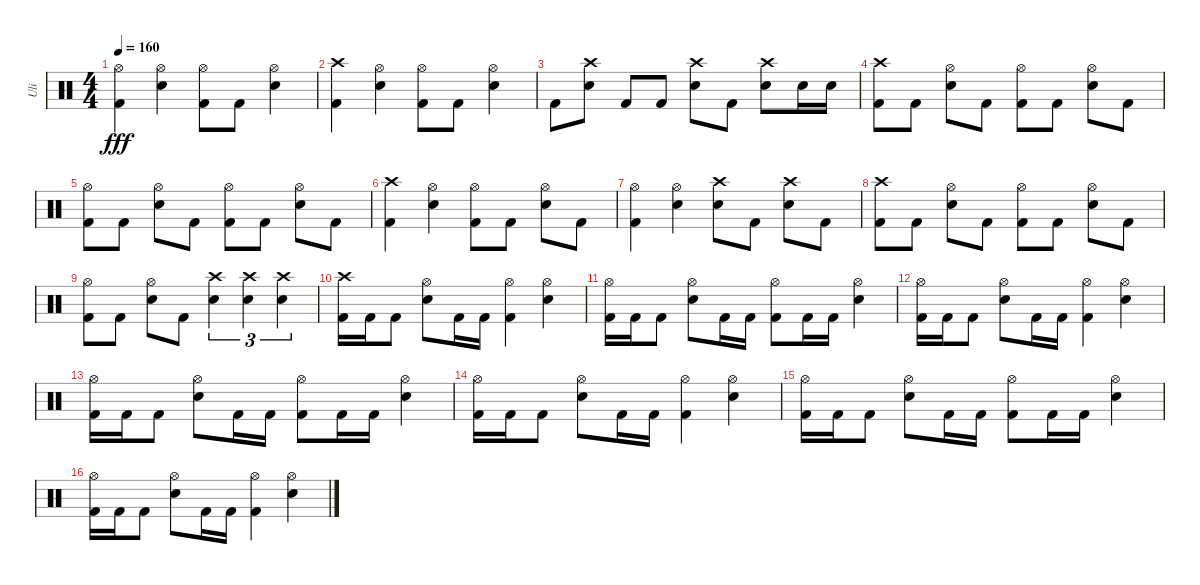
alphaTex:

\track ("Uli" "Uli") {instrument percussion}
\staff {score}
\articulation defaults
\ts (4 4)
\tempo 160
\clef neutral
\ks c
("Kick (hit) 2" "Hi-Hat (open)").4{dy fff} ("Electric Snare (hit)" "Hi-Hat (open)").4 ("Hi-Hat (open)" "Kick (hit) 2").8 "Kick (hit) 2".8 ("Electric Snare (hit)" "Hi-Hat (open)").4 |
("Crash high (hit)" "Kick (hit) 2").4 ("Electric Snare (hit)" "Hi-Hat (open)").4 ("Hi-Hat (open)" "Kick (hit) 2").8 "Kick (hit) 2".8 ("Electric Snare (hit)" "Hi-Hat (open)").4 |
"Kick (hit) 2".8 ("Crash high (hit)" "Electric Snare (hit)").8 "Kick (hit) 2".8 "Kick (hit) 2".8 ("Crash high (hit)" "Electric Snare (hit)").8 "Kick (hit) 2".8 ("Crash high (hit)" "Electric Snare (hit)").8 "Electric Snare (hit)".16 "Electric Snare (hit)".16 |
("Crash high (hit)" "Kick (hit) 2").8 "Kick (hit) 2".8 ("Electric Snare (hit)" "Hi-Hat (open)").8 "Kick (hit) 2".8 ("Hi-Hat (open)" "Kick (hit) 2").8 "Kick (hit) 2".8 ("Electric Snare (hit)" "Hi-Hat (open)").8 "Kick (hit) 2".8 |
("Kick (hit) 2" "Hi-Hat (open)").8 "Kick (hit) 2".8 ("Electric Snare (hit)" "Hi-Hat (open)").8 "Kick (hit) 2".8 ("Hi-Hat (open)" "Kick (hit) 2").8 "Kick (hit) 2".8 ("Electric Snare (hit)" "Hi-Hat (open)").8 "Kick (hit) 2".8 |
("Crash high (hit)" "Kick (hit) 2").4 ("Electric Snare (hit)" "Hi-Hat (open)").4 ("Hi-Hat (open)" "Kick (hit) 2").8 "Kick (hit) 2".8 ("Electric Snare (hit)" "Hi-Hat (open)").8 "Kick (hit) 2".8 |
("Hi-Hat (open)" "Kick (hit) 2").4 ("Electric Snare (hit)" "Hi-Hat (open)").4 ("Crash high (hit)" "Electric Snare (hit)").8 "Kick (hit) 2".8 ("Electric Snare (hit)" "Crash high (hit)").8 "Kick (hit) 2".8 |
("Crash high (hit)" "Kick (hit) 2").8 "Kick (hit) 2".8 ("Electric Snare (hit)" "Hi-Hat (open)").8 "Kick (hit) 2".8 ("Hi-Hat (open)" "Kick (hit) 2").8 "Kick (hit) 2".8 ("Electric Snare (hit)" "Hi-Hat (open)").8 "Kick (hit) 2".8 |
("Kick (hit) 2" "Hi-Hat (open)").8 "Kick (hit) 2".8 ("Electric Snare (hit)" "Hi-Hat (open)").8 "Kick (hit) 2".8 ("Crash high (hit)" "Electric Snare (hit)").4{tu (3 2)} ("Crash high (hit)" "Electric Snare (hit)").4{tu (3 2)} ("Crash high (hit)" "Electric Snare (hit)").4{tu (3 2)} |
("Crash high (hit)" "Kick (hit) 2").16 "Kick (hit) 2".16 "Kick (hit) 2".8 ("Electric Snare (hit)" "Hi-Hat (open)").8 "Kick (hit) 2".16 "Kick (hit) 2".16 ("Hi-Hat (open)" "Kick (hit) 2").4 ("Electric Snare (hit)" "Hi-Hat (open)").4 |
("Kick (hit) 2" "Hi-Hat (open)").16 "Kick (hit) 2".16 "Kick (hit) 2".8 ("Electric Snare (hit)" "Hi-Hat (open)").8 "Kick (hit) 2".16 "Kick (hit) 2".16 ("Hi-Hat (open)" "Kick (hit) 2").8 "Kick (hit) 2".16 "Kick (hit) 2".16 ("Electric Snare (hit)" "Hi-Hat (open)").4 |
("Kick (hit) 2" "Hi-Hat (open)").16 "Kick (hit) 2".16 "Kick (hit) 2".8 ("Electric Snare (hit)" "Hi-Hat (open)").8 "Kick (hit) 2".16 "Kick (hit) 2".16 ("Hi-Hat (open)" "Kick (hit) 2").4 ("Electric Snare (hit)" "Hi-Hat (open)").4 |
("Kick (hit) 2" "Hi-Hat (open)").16 "Kick (hit) 2".16 "Kick (hit) 2".8 ("Electric Snare (hit)" "Hi-Hat (open)").8 "Kick (hit) 2".16 "Kick (hit) 2".16 ("Hi-Hat (open)" "Kick (hit) 2").8 "Kick (hit) 2".16 "Kick (hit) 2".16 ("Electric Snare (hit)" "Hi-Hat (open)").4 |
("Kick (hit) 2" "Hi-Hat (open)").16 "Kick (hit) 2".16 "Kick (hit) 2".8 ("Electric Snare (hit)" "Hi-Hat (open)").8 "Kick (hit) 2".16 "Kick (hit) 2".16 ("Hi-Hat (open)" "Kick (hit) 2").4 ("Electric Snare (hit)" "Hi-Hat (open)").4 |
("Kick (hit) 2" "Hi-Hat (open)").16 "Kick (hit) 2".16 "Kick (hit) 2".8 ("Electric Snare (hit)" "Hi-Hat (open)").8 "Kick (hit) 2".16 "Kick (hit) 2".16 ("Hi-Hat (open)" "Kick (hit) 2").8 "Kick (hit) 2".16 "Kick (hit) 2".16 ("Electric Snare (hit)" "Hi-Hat (open)").4 |
("Kick (hit) 2" "Hi-Hat (open)").16 "Kick (hit) 2".16 "Kick (hit) 2".8 ("Electric Snare (hit)" "Hi-Hat (open)").8 "Kick (hit) 2".16 "Kick (hit) 2".16 ("Hi-Hat (open)" "Kick (hit) 2").4 ("Electric Snare (hit)" "Hi-Hat (open)").4
